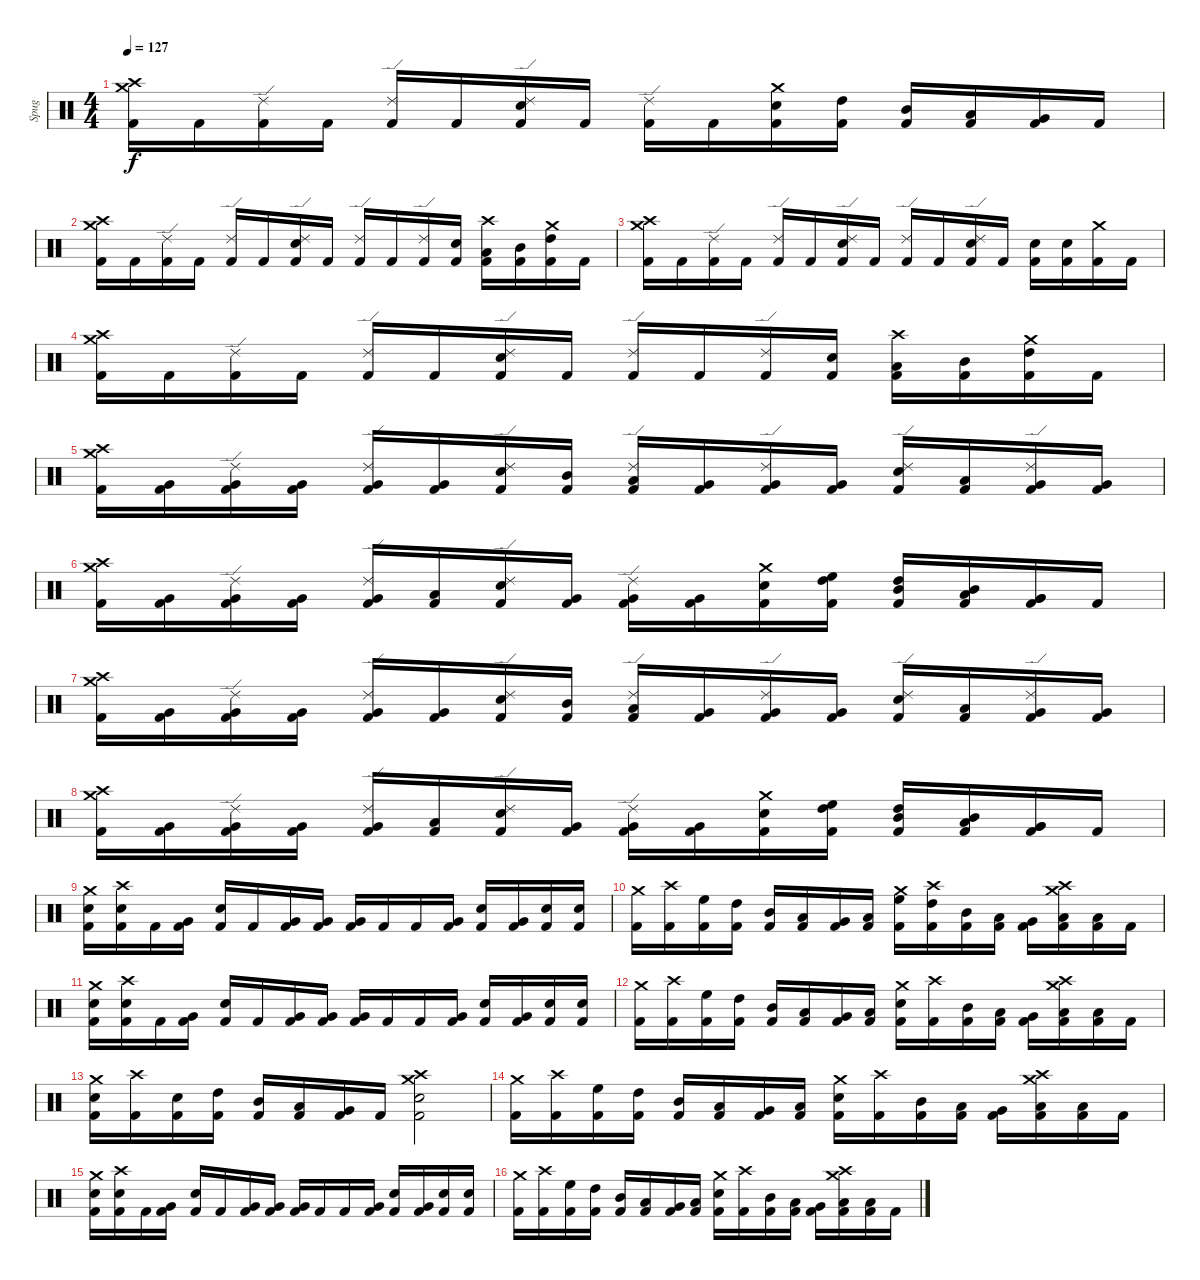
\track ("Spug" "Spug") {instrument percussion}
\staff {score}
\articulation defaults
\ts (4 4)
\tempo 127
\clef neutral
\ks c
("Crash medium (hit)" "Crash high (hit)" "Kick (hit) 2").16{dy f} "Kick (hit) 2".16 ("Ride (edge) 2" "Kick (hit) 2").16 "Kick (hit) 2".16 ("Ride (edge) 2" "Kick (hit) 2").16 "Kick (hit) 2".16 ("Ride (edge) 2" "Electric Snare (hit)" "Kick (hit) 2").16 "Kick (hit) 2".16 ("Ride (edge) 2" "Kick (hit) 2").16 "Kick (hit) 2".16 ("Crash medium (hit)" "Electric Snare (hit)" "Kick (hit) 2").16 ("High Tom (hit)" "Kick (hit) 2").16 ("Mid Tom (hit)" "Kick (hit) 2").16 ("Low Tom (hit)" "Kick (hit) 2").16 ("Very Low Tom (hit)" "Kick (hit) 2").16 "Kick (hit) 2".16 |
("Crash medium (hit)" "Crash high (hit)" "Kick (hit) 2").16 "Kick (hit) 2".16 ("Ride (edge) 2" "Kick (hit) 2").16 "Kick (hit) 2".16 ("Ride (edge) 2" "Kick (hit) 2").16 "Kick (hit) 2".16 ("Ride (edge) 2" "Electric Snare (hit)" "Kick (hit) 2").16 "Kick (hit) 2".16 ("Ride (edge) 2" "Kick (hit) 2").16 "Kick (hit) 2".16 ("Ride (edge) 2" "Kick (hit) 2").16 ("Electric Snare (hit)" "Kick (hit) 2").16 ("Crash high (hit)" "Low Tom (hit)" "Kick (hit) 2").16 ("Mid Tom (hit)" "Kick (hit) 2").16 ("Crash medium (hit)" "High Tom (hit)" "Kick (hit) 2").16 "Kick (hit) 2".16 |
("Crash medium (hit)" "Crash high (hit)" "Kick (hit) 2").16 "Kick (hit) 2".16 ("Ride (edge) 2" "Kick (hit) 2").16 "Kick (hit) 2".16 ("Ride (edge) 2" "Kick (hit) 2").16 "Kick (hit) 2".16 ("Ride (edge) 2" "Electric Snare (hit)" "Kick (hit) 2").16 "Kick (hit) 2".16 ("Ride (edge) 2" "Kick (hit) 2").16 "Kick (hit) 2".16 ("Ride (edge) 2" "Electric Snare (hit)" "Kick (hit) 2").16 "Kick (hit) 2".16 ("Electric Snare (hit)" "Kick (hit) 2").16 ("Electric Snare (hit)" "Kick (hit) 2").16 ("Crash medium (hit)" "Kick (hit) 2").16 "Kick (hit) 2".16 |
("Crash medium (hit)" "Crash high (hit)" "Kick (hit) 2").16 "Kick (hit) 2".16 ("Ride (edge) 2" "Kick (hit) 2").16 "Kick (hit) 2".16 ("Ride (edge) 2" "Kick (hit) 2").16 "Kick (hit) 2".16 ("Ride (edge) 2" "Electric Snare (hit)" "Kick (hit) 2").16 "Kick (hit) 2".16 ("Ride (edge) 2" "Kick (hit) 2").16 "Kick (hit) 2".16 ("Ride (edge) 2" "Kick (hit) 2").16 ("Electric Snare (hit)" "Kick (hit) 2").16 ("Crash high (hit)" "Low Tom (hit)" "Kick (hit) 2").16 ("Mid Tom (hit)" "Kick (hit) 2").16 ("Crash medium (hit)" "High Tom (hit)" "Kick (hit) 2").16 "Kick (hit) 2".16 |
("Crash medium (hit)" "Crash high (hit)" "Kick (hit) 2").16 ("Very Low Tom (hit)" "Kick (hit) 2").16 ("Ride (edge) 2" "Very Low Tom (hit)" "Kick (hit) 2").16 ("Very Low Tom (hit)" "Kick (hit) 2").16 ("Ride (edge) 2" "Very Low Tom (hit)" "Kick (hit) 2").16 ("Very Low Tom (hit)" "Kick (hit) 2").16 ("Ride (edge) 2" "Electric Snare (hit)" "Kick (hit) 2").16 ("Mid Tom (hit)" "Kick (hit) 2").16 ("Ride (edge) 2" "Low Tom (hit)" "Kick (hit) 2").16 ("Very Low Tom (hit)" "Kick (hit) 2").16 ("Ride (edge) 2" "Very Low Tom (hit)" "Kick (hit) 2").16 ("Very Low Tom (hit)" "Kick (hit) 2").16 ("Ride (edge) 2" "Electric Snare (hit)" "Kick (hit) 2").16 ("Low Tom (hit)" "Kick (hit) 2").16 ("Ride (edge) 2" "Very Low Tom (hit)" "Kick (hit) 2").16 ("Very Low Tom (hit)" "Kick (hit) 2").16 |
("Crash medium (hit)" "Crash high (hit)" "Kick (hit) 2").16 ("Very Low Tom (hit)" "Kick (hit) 2").16 ("Ride (edge) 2" "Very Low Tom (hit)" "Kick (hit) 2").16 ("Very Low Tom (hit)" "Kick (hit) 2").16 ("Ride (edge) 2" "Very Low Tom (hit)" "Kick (hit) 2").16 ("Low Tom (hit)" "Kick (hit) 2").16 ("Ride (edge) 2" "Electric Snare (hit)" "Kick (hit) 2").16 ("Very Low Tom (hit)" "Kick (hit) 2").16 ("Ride (edge) 2" "Very Low Tom (hit)" "Kick (hit) 2").16 ("Very Low Tom (hit)" "Kick (hit) 2").16 ("Crash medium (hit)" "Electric Snare (hit)" "Kick (hit) 2").16 ("High Tom (hit)" "High Floor Tom (hit)" "Kick (hit) 2").16 ("Mid Tom (hit)" "High Tom (hit)" "Kick (hit) 2").16 ("Low Tom (hit)" "Mid Tom (hit)" "Kick (hit) 2").16 ("Very Low Tom (hit)" "Very Low Tom (hit)" "Kick (hit) 2").16 "Kick (hit) 2".16 |
("Crash medium (hit)" "Crash high (hit)" "Kick (hit) 2").16 ("Very Low Tom (hit)" "Kick (hit) 2").16 ("Ride (edge) 2" "Very Low Tom (hit)" "Kick (hit) 2").16 ("Very Low Tom (hit)" "Kick (hit) 2").16 ("Ride (edge) 2" "Very Low Tom (hit)" "Kick (hit) 2").16 ("Very Low Tom (hit)" "Kick (hit) 2").16 ("Ride (edge) 2" "Electric Snare (hit)" "Kick (hit) 2").16 ("Mid Tom (hit)" "Kick (hit) 2").16 ("Ride (edge) 2" "Low Tom (hit)" "Kick (hit) 2").16 ("Very Low Tom (hit)" "Kick (hit) 2").16 ("Ride (edge) 2" "Very Low Tom (hit)" "Kick (hit) 2").16 ("Very Low Tom (hit)" "Kick (hit) 2").16 ("Ride (edge) 2" "Electric Snare (hit)" "Kick (hit) 2").16 ("Low Tom (hit)" "Kick (hit) 2").16 ("Ride (edge) 2" "Very Low Tom (hit)" "Kick (hit) 2").16 ("Very Low Tom (hit)" "Kick (hit) 2").16 |
("Crash medium (hit)" "Crash high (hit)" "Kick (hit) 2").16 ("Very Low Tom (hit)" "Kick (hit) 2").16 ("Ride (edge) 2" "Very Low Tom (hit)" "Kick (hit) 2").16 ("Very Low Tom (hit)" "Kick (hit) 2").16 ("Ride (edge) 2" "Very Low Tom (hit)" "Kick (hit) 2").16 ("Low Tom (hit)" "Kick (hit) 2").16 ("Ride (edge) 2" "Electric Snare (hit)" "Kick (hit) 2").16 ("Very Low Tom (hit)" "Kick (hit) 2").16 ("Ride (edge) 2" "Very Low Tom (hit)" "Kick (hit) 2").16 ("Very Low Tom (hit)" "Kick (hit) 2").16 ("Crash medium (hit)" "Electric Snare (hit)" "Kick (hit) 2").16 ("High Tom (hit)" "High Floor Tom (hit)" "Kick (hit) 2").16 ("Mid Tom (hit)" "High Tom (hit)" "Kick (hit) 2").16 ("Low Tom (hit)" "Mid Tom (hit)" "Kick (hit) 2").16 ("Very Low Tom (hit)" "Very Low Tom (hit)" "Kick (hit) 2").16 "Kick (hit) 2".16 |
("Crash medium (hit)" "Electric Snare (hit)" "Kick (hit) 2").16 ("Crash high (hit)" "Electric Snare (hit)" "Kick (hit) 2").16 "Kick (hit) 2".16 ("Very Low Tom (hit)" "Kick (hit) 2").16 ("Electric Snare (hit)" "Kick (hit) 2").16 "Kick (hit) 2".16 ("Very Low Tom (hit)" "Kick (hit) 2").16 ("Very Low Tom (hit)" "Kick (hit) 2").16 ("Very Low Tom (hit)" "Kick (hit) 2").16 "Kick (hit) 2".16 "Kick (hit) 2".16 ("Very Low Tom (hit)" "Kick (hit) 2").16 ("Electric Snare (hit)" "Kick (hit) 2").16 ("Very Low Tom (hit)" "Kick (hit) 2").16 ("Electric Snare (hit)" "Kick (hit) 2").16 ("Electric Snare (hit)" "Kick (hit) 2").16 |
("Crash medium (hit)" "Kick (hit) 2").16 ("Crash high (hit)" "Kick (hit) 2").16 ("High Floor Tom (hit)" "Kick (hit) 2").16 ("High Tom (hit)" "Kick (hit) 2").16 ("Mid Tom (hit)" "Kick (hit) 2").16 ("Low Tom (hit)" "Kick (hit) 2").16 ("Very Low Tom (hit)" "Kick (hit) 2").16 ("Low Floor Tom (hit)" "Kick (hit) 2").16 ("Crash medium (hit)" "High Floor Tom (hit)" "Kick (hit) 2").16 ("Crash high (hit)" "High Tom (hit)" "Kick (hit) 2").16 ("Mid Tom (hit)" "Kick (hit) 2").16 ("Low Tom (hit)" "Kick (hit) 2").16 ("Very Low Tom (hit)" "Kick (hit) 2").16 ("Crash medium (hit)" "Crash high (hit)" "Low Floor Tom (hit)" "Kick (hit) 2").16 ("Low Floor Tom (hit)" "Kick (hit) 2").16 "Kick (hit) 2".16 |
("Crash medium (hit)" "Electric Snare (hit)" "Kick (hit) 2").16 ("Crash high (hit)" "Electric Snare (hit)" "Kick (hit) 2").16 "Kick (hit) 2".16 ("Very Low Tom (hit)" "Kick (hit) 2").16 ("Electric Snare (hit)" "Kick (hit) 2").16 "Kick (hit) 2".16 ("Very Low Tom (hit)" "Kick (hit) 2").16 ("Very Low Tom (hit)" "Kick (hit) 2").16 ("Very Low Tom (hit)" "Kick (hit) 2").16 "Kick (hit) 2".16 "Kick (hit) 2".16 ("Very Low Tom (hit)" "Kick (hit) 2").16 ("Electric Snare (hit)" "Kick (hit) 2").16 ("Very Low Tom (hit)" "Kick (hit) 2").16 ("Electric Snare (hit)" "Kick (hit) 2").16 ("Electric Snare (hit)" "Kick (hit) 2").16 |
("Crash medium (hit)" "Kick (hit) 2").16 ("Crash high (hit)" "Kick (hit) 2").16 ("High Floor Tom (hit)" "Kick (hit) 2").16 ("High Tom (hit)" "Kick (hit) 2").16 ("Mid Tom (hit)" "Kick (hit) 2").16 ("Low Tom (hit)" "Kick (hit) 2").16 ("Very Low Tom (hit)" "Kick (hit) 2").16 ("Low Floor Tom (hit)" "Kick (hit) 2").16 ("Crash medium (hit)" "Electric Snare (hit)" "Kick (hit) 2").16 ("Crash high (hit)" "Kick (hit) 2").16 ("Mid Tom (hit)" "Kick (hit) 2").16 ("Low Tom (hit)" "Kick (hit) 2").16 ("Very Low Tom (hit)" "Kick (hit) 2").16 ("Crash medium (hit)" "Crash high (hit)" "Low Floor Tom (hit)" "Kick (hit) 2").16 ("Low Floor Tom (hit)" "Kick (hit) 2").16 "Kick (hit) 2".16 |
("Crash medium (hit)" "Electric Snare (hit)" "Kick (hit) 2").16 ("Crash high (hit)" "Kick (hit) 2").16 ("Electric Snare (hit)" "Kick (hit) 2").16 ("High Tom (hit)" "Kick (hit) 2").16 ("Mid Tom (hit)" "Kick (hit) 2").16 ("Low Tom (hit)" "Kick (hit) 2").16 ("Very Low Tom (hit)" "Kick (hit) 2").16 "Kick (hit) 2".16 ("Crash high (hit)" "Crash medium (hit)" "Electric Snare (hit)" "Kick (hit) 2").2 |
("Crash medium (hit)" "Kick (hit) 2").16 ("Crash high (hit)" "Kick (hit) 2").16 ("High Floor Tom (hit)" "Kick (hit) 2").16 ("High Tom (hit)" "Kick (hit) 2").16 ("Mid Tom (hit)" "Kick (hit) 2").16 ("Low Tom (hit)" "Kick (hit) 2").16 ("Very Low Tom (hit)" "Kick (hit) 2").16 ("Low Floor Tom (hit)" "Kick (hit) 2").16 ("Crash medium (hit)" "Electric Snare (hit)" "Kick (hit) 2").16 ("Crash high (hit)" "Kick (hit) 2").16 ("Mid Tom (hit)" "Kick (hit) 2").16 ("Low Tom (hit)" "Kick (hit) 2").16 ("Very Low Tom (hit)" "Kick (hit) 2").16 ("Crash medium (hit)" "Crash high (hit)" "Low Floor Tom (hit)" "Kick (hit) 2").16 ("Low Floor Tom (hit)" "Kick (hit) 2").16 "Kick (hit) 2".16 |
("Crash medium (hit)" "Electric Snare (hit)" "Kick (hit) 2").16 ("Crash high (hit)" "Electric Snare (hit)" "Kick (hit) 2").16 "Kick (hit) 2".16 ("Very Low Tom (hit)" "Kick (hit) 2").16 ("Electric Snare (hit)" "Kick (hit) 2").16 "Kick (hit) 2".16 ("Very Low Tom (hit)" "Kick (hit) 2").16 ("Very Low Tom (hit)" "Kick (hit) 2").16 ("Very Low Tom (hit)" "Kick (hit) 2").16 "Kick (hit) 2".16 "Kick (hit) 2".16 ("Very Low Tom (hit)" "Kick (hit) 2").16 ("Electric Snare (hit)" "Kick (hit) 2").16 ("Very Low Tom (hit)" "Kick (hit) 2").16 ("Electric Snare (hit)" "Kick (hit) 2").16 ("Electric Snare (hit)" "Kick (hit) 2").16 |
("Crash medium (hit)" "Kick (hit) 2").16 ("Crash high (hit)" "Kick (hit) 2").16 ("High Floor Tom (hit)" "Kick (hit) 2").16 ("High Tom (hit)" "Kick (hit) 2").16 ("Mid Tom (hit)" "Kick (hit) 2").16 ("Low Tom (hit)" "Kick (hit) 2").16 ("Very Low Tom (hit)" "Kick (hit) 2").16 ("Low Floor Tom (hit)" "Kick (hit) 2").16 ("Crash medium (hit)" "Electric Snare (hit)" "Kick (hit) 2").16 ("Crash high (hit)" "Kick (hit) 2").16 ("Mid Tom (hit)" "Kick (hit) 2").16 ("Low Tom (hit)" "Kick (hit) 2").16 ("Very Low Tom (hit)" "Kick (hit) 2").16 ("Crash medium (hit)" "Crash high (hit)" "Low Floor Tom (hit)" "Kick (hit) 2").16 ("Low Floor Tom (hit)" "Kick (hit) 2").16 "Kick (hit) 2".16
